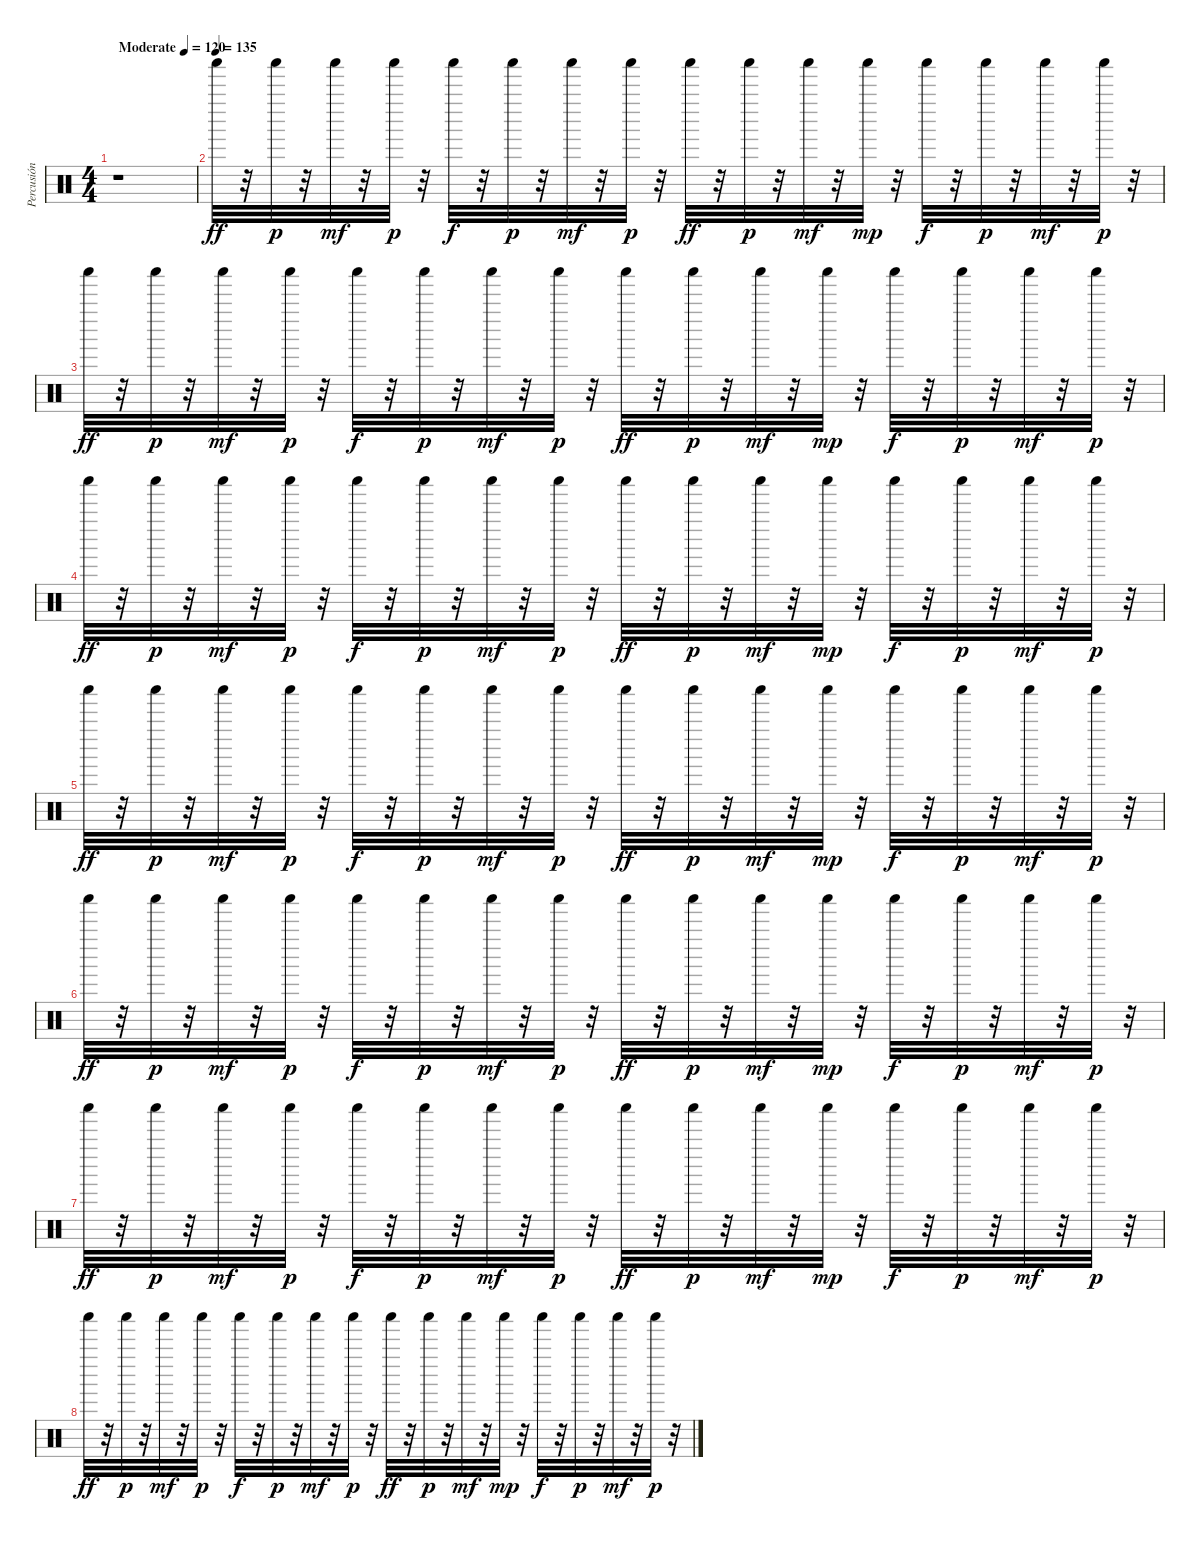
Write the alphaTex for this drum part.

\track ("Percusión" "Percusión") {instrument percussion}
\staff {score}
\articulation defaults
\ts (4 4)
\tempo (120 "Moderate")
\clef neutral
\ks c
r.1{dy ff} |
\tempo (135)
"Shaker (hit)".32 r.32 "Shaker (hit)".32{dy p} r.32 "Shaker (hit)".32{dy mf} r.32 "Shaker (hit)".32{dy p} r.32 "Shaker (hit)".32{dy f} r.32 "Shaker (hit)".32{dy p} r.32 "Shaker (hit)".32{dy mf} r.32 "Shaker (hit)".32{dy p} r.32 "Shaker (hit)".32{dy ff} r.32 "Shaker (hit)".32{dy p} r.32 "Shaker (hit)".32{dy mf} r.32 "Shaker (hit)".32{dy mp} r.32 "Shaker (hit)".32{dy f} r.32 "Shaker (hit)".32{dy p} r.32 "Shaker (hit)".32{dy mf} r.32 "Shaker (hit)".32{dy p} r.32 |
"Shaker (hit)".32{dy ff} r.32 "Shaker (hit)".32{dy p} r.32 "Shaker (hit)".32{dy mf} r.32 "Shaker (hit)".32{dy p} r.32 "Shaker (hit)".32{dy f} r.32 "Shaker (hit)".32{dy p} r.32 "Shaker (hit)".32{dy mf} r.32 "Shaker (hit)".32{dy p} r.32 "Shaker (hit)".32{dy ff} r.32 "Shaker (hit)".32{dy p} r.32 "Shaker (hit)".32{dy mf} r.32 "Shaker (hit)".32{dy mp} r.32 "Shaker (hit)".32{dy f} r.32 "Shaker (hit)".32{dy p} r.32 "Shaker (hit)".32{dy mf} r.32 "Shaker (hit)".32{dy p} r.32 |
"Shaker (hit)".32{dy ff} r.32 "Shaker (hit)".32{dy p} r.32 "Shaker (hit)".32{dy mf} r.32 "Shaker (hit)".32{dy p} r.32 "Shaker (hit)".32{dy f} r.32 "Shaker (hit)".32{dy p} r.32 "Shaker (hit)".32{dy mf} r.32 "Shaker (hit)".32{dy p} r.32 "Shaker (hit)".32{dy ff} r.32 "Shaker (hit)".32{dy p} r.32 "Shaker (hit)".32{dy mf} r.32 "Shaker (hit)".32{dy mp} r.32 "Shaker (hit)".32{dy f} r.32 "Shaker (hit)".32{dy p} r.32 "Shaker (hit)".32{dy mf} r.32 "Shaker (hit)".32{dy p} r.32 |
"Shaker (hit)".32{dy ff} r.32 "Shaker (hit)".32{dy p} r.32 "Shaker (hit)".32{dy mf} r.32 "Shaker (hit)".32{dy p} r.32 "Shaker (hit)".32{dy f} r.32 "Shaker (hit)".32{dy p} r.32 "Shaker (hit)".32{dy mf} r.32 "Shaker (hit)".32{dy p} r.32 "Shaker (hit)".32{dy ff} r.32 "Shaker (hit)".32{dy p} r.32 "Shaker (hit)".32{dy mf} r.32 "Shaker (hit)".32{dy mp} r.32 "Shaker (hit)".32{dy f} r.32 "Shaker (hit)".32{dy p} r.32 "Shaker (hit)".32{dy mf} r.32 "Shaker (hit)".32{dy p} r.32 |
"Shaker (hit)".32{dy ff} r.32 "Shaker (hit)".32{dy p} r.32 "Shaker (hit)".32{dy mf} r.32 "Shaker (hit)".32{dy p} r.32 "Shaker (hit)".32{dy f} r.32 "Shaker (hit)".32{dy p} r.32 "Shaker (hit)".32{dy mf} r.32 "Shaker (hit)".32{dy p} r.32 "Shaker (hit)".32{dy ff} r.32 "Shaker (hit)".32{dy p} r.32 "Shaker (hit)".32{dy mf} r.32 "Shaker (hit)".32{dy mp} r.32 "Shaker (hit)".32{dy f} r.32 "Shaker (hit)".32{dy p} r.32 "Shaker (hit)".32{dy mf} r.32 "Shaker (hit)".32{dy p} r.32 |
"Shaker (hit)".32{dy ff} r.32 "Shaker (hit)".32{dy p} r.32 "Shaker (hit)".32{dy mf} r.32 "Shaker (hit)".32{dy p} r.32 "Shaker (hit)".32{dy f} r.32 "Shaker (hit)".32{dy p} r.32 "Shaker (hit)".32{dy mf} r.32 "Shaker (hit)".32{dy p} r.32 "Shaker (hit)".32{dy ff} r.32 "Shaker (hit)".32{dy p} r.32 "Shaker (hit)".32{dy mf} r.32 "Shaker (hit)".32{dy mp} r.32 "Shaker (hit)".32{dy f} r.32 "Shaker (hit)".32{dy p} r.32 "Shaker (hit)".32{dy mf} r.32 "Shaker (hit)".32{dy p} r.32 |
"Shaker (hit)".32{dy ff} r.32 "Shaker (hit)".32{dy p} r.32 "Shaker (hit)".32{dy mf} r.32 "Shaker (hit)".32{dy p} r.32 "Shaker (hit)".32{dy f} r.32 "Shaker (hit)".32{dy p} r.32 "Shaker (hit)".32{dy mf} r.32 "Shaker (hit)".32{dy p} r.32 "Shaker (hit)".32{dy ff} r.32 "Shaker (hit)".32{dy p} r.32 "Shaker (hit)".32{dy mf} r.32 "Shaker (hit)".32{dy mp} r.32 "Shaker (hit)".32{dy f} r.32 "Shaker (hit)".32{dy p} r.32 "Shaker (hit)".32{dy mf} r.32 "Shaker (hit)".32{dy p} r.32
